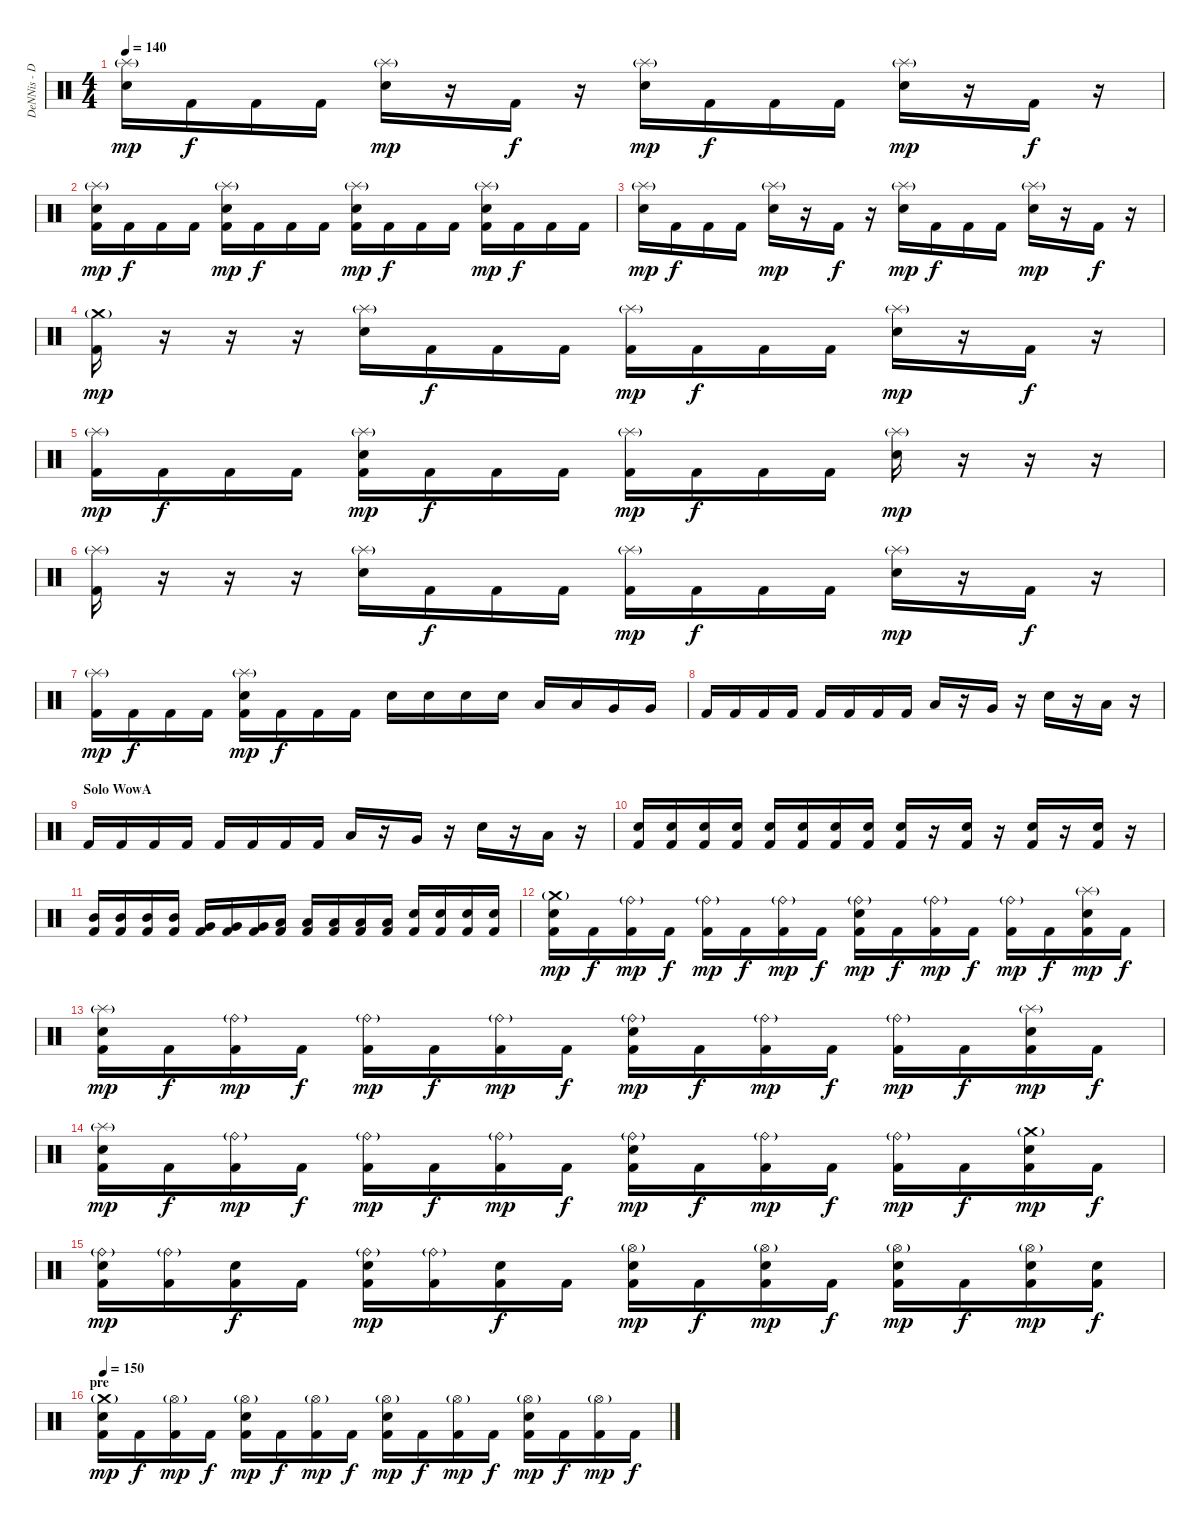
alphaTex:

\track ("DeNNis - Drums" "DeNNis - D") {instrument percussion}
\staff {score}
\articulation defaults
\ts (4 4)
\tempo 140
\clef neutral
\ks c
("Splash (hit)"{g} "Electric Snare (hit)").16{dy mp} "Kick (hit) 2".16{dy f} "Kick (hit) 2".16 "Kick (hit) 2".16 ("Splash (hit)"{g} "Electric Snare (hit)").16{dy mp} r.16 "Kick (hit) 2".16{dy f} r.16 ("Splash (hit)"{g} "Electric Snare (hit)").16{dy mp} "Kick (hit) 2".16{dy f} "Kick (hit) 2".16 "Kick (hit) 2".16 ("Splash (hit)"{g} "Electric Snare (hit)").16{dy mp} r.16 "Kick (hit) 2".16{dy f} r.16 |
("Splash (hit)"{g} "Electric Snare (hit)" "Kick (hit) 2").16{dy mp} "Kick (hit) 2".16{dy f} "Kick (hit) 2".16 "Kick (hit) 2".16 ("Splash (hit)"{g} "Electric Snare (hit)" "Kick (hit) 2").16{dy mp} "Kick (hit) 2".16{dy f} "Kick (hit) 2".16 "Kick (hit) 2".16 ("Splash (hit)"{g} "Electric Snare (hit)" "Kick (hit) 2").16{dy mp} "Kick (hit) 2".16{dy f} "Kick (hit) 2".16 "Kick (hit) 2".16 ("Splash (hit)"{g} "Electric Snare (hit)" "Kick (hit) 2").16{dy mp} "Kick (hit) 2".16{dy f} "Kick (hit) 2".16 "Kick (hit) 2".16 |
("Splash (hit)"{g} "Electric Snare (hit)").16{dy mp} "Kick (hit) 2".16{dy f} "Kick (hit) 2".16 "Kick (hit) 2".16 ("Splash (hit)"{g} "Electric Snare (hit)").16{dy mp} r.16 "Kick (hit) 2".16{dy f} r.16 ("Splash (hit)"{g} "Electric Snare (hit)").16{dy mp} "Kick (hit) 2".16{dy f} "Kick (hit) 2".16 "Kick (hit) 2".16 ("Splash (hit)"{g} "Electric Snare (hit)").16{dy mp} r.16 "Kick (hit) 2".16{dy f} r.16 |
("Crash medium (hit)"{g} "Kick (hit) 2").16{dy mp} r.16 r.16 r.16 ("Splash (hit)"{g} "Electric Snare (hit)").16 "Kick (hit) 2".16{dy f} "Kick (hit) 2".16 "Kick (hit) 2".16 ("Splash (hit)"{g} "Kick (hit) 2").16{dy mp} "Kick (hit) 2".16{dy f} "Kick (hit) 2".16 "Kick (hit) 2".16 ("Splash (hit)"{g} "Electric Snare (hit)").16{dy mp} r.16 "Kick (hit) 2".16{dy f} r.16 |
("Splash (hit)"{g} "Kick (hit) 2").16{dy mp} "Kick (hit) 2".16{dy f} "Kick (hit) 2".16 "Kick (hit) 2".16 ("Splash (hit)"{g} "Electric Snare (hit)" "Kick (hit) 2").16{dy mp} "Kick (hit) 2".16{dy f} "Kick (hit) 2".16 "Kick (hit) 2".16 ("Splash (hit)"{g} "Kick (hit) 2").16{dy mp} "Kick (hit) 2".16{dy f} "Kick (hit) 2".16 "Kick (hit) 2".16 ("Splash (hit)"{g} "Electric Snare (hit)").16{dy mp} r.16 r.16 r.16 |
("Splash (hit)"{g} "Kick (hit) 2").16 r.16 r.16 r.16 ("Splash (hit)"{g} "Electric Snare (hit)").16 "Kick (hit) 2".16{dy f} "Kick (hit) 2".16 "Kick (hit) 2".16 ("Splash (hit)"{g} "Kick (hit) 2").16{dy mp} "Kick (hit) 2".16{dy f} "Kick (hit) 2".16 "Kick (hit) 2".16 ("Splash (hit)"{g} "Electric Snare (hit)").16{dy mp} r.16 "Kick (hit) 2".16{dy f} r.16 |
("Splash (hit)"{g} "Kick (hit) 2").16{dy mp} "Kick (hit) 2".16{dy f} "Kick (hit) 2".16 "Kick (hit) 2".16 ("Splash (hit)"{g} "Electric Snare (hit)" "Kick (hit) 2").16{dy mp} "Kick (hit) 2".16{dy f} "Kick (hit) 2".16 "Kick (hit) 2".16 "Electric Snare (hit)".16 "Electric Snare (hit)".16 "Electric Snare (hit)".16 "Electric Snare (hit)".16 "Low Tom (hit)".16 "Low Tom (hit)".16 "Very Low Tom (hit)".16 "Very Low Tom (hit)".16 |
"Kick (hit) 2".16 "Kick (hit) 2".16 "Kick (hit) 2".16 "Kick (hit) 2".16 "Kick (hit) 2".16 "Kick (hit) 2".16 "Kick (hit) 2".16 "Kick (hit) 2".16 "Low Tom (hit)".16{volume 15 balance 0} r.16 "Very Low Tom (hit)".16{volume 15 balance 8} r.16 "Electric Snare (hit)".16{volume 14} r.16 "Low Floor Tom (hit)".16{volume 15 balance 16} r.16 |
\section ("" "Solo WowA")
"Kick (hit) 2".16 "Kick (hit) 2".16 "Kick (hit) 2".16 "Kick (hit) 2".16 "Kick (hit) 2".16 "Kick (hit) 2".16 "Kick (hit) 2".16 "Kick (hit) 2".16 "Low Tom (hit)".16{volume 15 balance 0} r.16 "Very Low Tom (hit)".16{volume 15 balance 8} r.16 "Electric Snare (hit)".16{volume 14} r.16 "Low Floor Tom (hit)".16{volume 15 balance 16} r.16 |
("Electric Snare (hit)" "Kick (hit) 2").16{volume 4 balance 8} ("Electric Snare (hit)" "Kick (hit) 2").16 ("Electric Snare (hit)" "Kick (hit) 2").16{volume 6} ("Electric Snare (hit)" "Kick (hit) 2").16 ("Electric Snare (hit)" "Kick (hit) 2").16{volume 8} ("Electric Snare (hit)" "Kick (hit) 2").16 ("Electric Snare (hit)" "Kick (hit) 2").16{volume 10} ("Electric Snare (hit)" "Kick (hit) 2").16 ("Electric Snare (hit)" "Kick (hit) 2").16{volume 12} r.16{volume 13} ("Electric Snare (hit)" "Kick (hit) 2").16 r.16 ("Electric Snare (hit)" "Kick (hit) 2").16 r.16 ("Electric Snare (hit)" "Kick (hit) 2").16 r.16 |
("Mid Tom (hit)" "Kick (hit) 2").16{balance 4} ("Mid Tom (hit)" "Kick (hit) 2").16 ("Mid Tom (hit)" "Kick (hit) 2").16 ("Mid Tom (hit)" "Kick (hit) 2").16 ("Very Low Tom (hit)" "Kick (hit) 2").16{balance 6} ("Very Low Tom (hit)" "Kick (hit) 2").16 ("Very Low Tom (hit)" "Kick (hit) 2").16 ("Low Floor Tom (hit)" "Kick (hit) 2").16{balance 10} ("Low Floor Tom (hit)" "Kick (hit) 2").16 ("Low Tom (hit)" "Kick (hit) 2").16{balance 12} ("Low Tom (hit)" "Kick (hit) 2").16 ("Low Tom (hit)" "Kick (hit) 2").16 ("Electric Snare (hit)" "Kick (hit) 2").16{balance 8} ("Electric Snare (hit)" "Kick (hit) 2").16 ("Electric Snare (hit)" "Kick (hit) 2").16 ("Electric Snare (hit)" "Kick (hit) 2").16 |
("Crash medium (hit)"{g} "Electric Snare (hit)" "Kick (hit) 2").16{dy mp} "Kick (hit) 2".16{dy f} ("Ride (bell)"{g} "Kick (hit) 2").16{dy mp} "Kick (hit) 2".16{dy f} ("Ride (bell)"{g} "Kick (hit) 2").16{dy mp} "Kick (hit) 2".16{dy f} ("Ride (bell)"{g} "Kick (hit) 2").16{dy mp} "Kick (hit) 2".16{dy f} ("Ride (bell)"{g} "Electric Snare (hit)" "Kick (hit) 2").16{dy mp} "Kick (hit) 2".16{dy f} ("Ride (bell)"{g} "Kick (hit) 2").16{dy mp} "Kick (hit) 2".16{dy f} ("Ride (bell)"{g} "Kick (hit) 2").16{dy mp} "Kick (hit) 2".16{dy f} ("Splash (hit)"{g} "Electric Snare (hit)" "Kick (hit) 2").16{dy mp} "Kick (hit) 2".16{dy f} |
("Splash (hit)"{g} "Electric Snare (hit)" "Kick (hit) 2").16{dy mp} "Kick (hit) 2".16{dy f} ("Ride (bell)"{g} "Kick (hit) 2").16{dy mp} "Kick (hit) 2".16{dy f} ("Ride (bell)"{g} "Kick (hit) 2").16{dy mp} "Kick (hit) 2".16{dy f} ("Ride (bell)"{g} "Kick (hit) 2").16{dy mp} "Kick (hit) 2".16{dy f} ("Ride (bell)"{g} "Electric Snare (hit)" "Kick (hit) 2").16{dy mp} "Kick (hit) 2".16{dy f} ("Ride (bell)"{g} "Kick (hit) 2").16{dy mp} "Kick (hit) 2".16{dy f} ("Ride (bell)"{g} "Kick (hit) 2").16{dy mp} "Kick (hit) 2".16{dy f} ("Splash (hit)"{g} "Electric Snare (hit)" "Kick (hit) 2").16{dy mp} "Kick (hit) 2".16{dy f} |
("Splash (hit)"{g} "Electric Snare (hit)" "Kick (hit) 2").16{dy mp} "Kick (hit) 2".16{dy f} ("Ride (bell)"{g} "Kick (hit) 2").16{dy mp} "Kick (hit) 2".16{dy f} ("Ride (bell)"{g} "Kick (hit) 2").16{dy mp} "Kick (hit) 2".16{dy f} ("Ride (bell)"{g} "Kick (hit) 2").16{dy mp} "Kick (hit) 2".16{dy f} ("Ride (bell)"{g} "Electric Snare (hit)" "Kick (hit) 2").16{dy mp} "Kick (hit) 2".16{dy f} ("Ride (bell)"{g} "Kick (hit) 2").16{dy mp} "Kick (hit) 2".16{dy f} ("Ride (bell)"{g} "Kick (hit) 2").16{dy mp} "Kick (hit) 2".16{dy f} ("Crash medium (hit)"{g} "Electric Snare (hit)" "Kick (hit) 2").16{dy mp} "Kick (hit) 2".16{dy f} |
("Ride (bell)"{g} "Electric Snare (hit)" "Kick (hit) 2").16{dy mp} ("Ride (bell)"{g} "Kick (hit) 2").16 ("Electric Snare (hit)" "Kick (hit) 2").16{dy f} "Kick (hit) 2".16 ("Ride (bell)"{g} "Electric Snare (hit)" "Kick (hit) 2").16{dy mp} ("Ride (bell)"{g} "Kick (hit) 2").16 ("Electric Snare (hit)" "Kick (hit) 2").16{dy f} "Kick (hit) 2".16 ("Hi-Hat (open)"{g} "Electric Snare (hit)" "Kick (hit) 2").16{dy mp} "Kick (hit) 2".16{dy f} ("Hi-Hat (open)"{g} "Electric Snare (hit)" "Kick (hit) 2").16{dy mp} "Kick (hit) 2".16{dy f} ("Hi-Hat (open)"{g} "Electric Snare (hit)" "Kick (hit) 2").16{dy mp} "Kick (hit) 2".16{dy f} ("Hi-Hat (open)"{g} "Electric Snare (hit)" "Kick (hit) 2").16{dy mp} ("Electric Snare (hit)" "Kick (hit) 2").16{dy f} |
\section ("" "pre")
\tempo 150
("Crash medium (hit)"{g} "Electric Snare (hit)" "Kick (hit) 2").16{dy mp} "Kick (hit) 2".16{dy f} ("Hi-Hat (open)"{g} "Kick (hit) 2").16{dy mp} "Kick (hit) 2".16{dy f} ("Hi-Hat (open)"{g} "Electric Snare (hit)" "Kick (hit) 2").16{dy mp} "Kick (hit) 2".16{dy f} ("Hi-Hat (open)"{g} "Kick (hit) 2").16{dy mp} "Kick (hit) 2".16{dy f} ("Hi-Hat (open)"{g} "Electric Snare (hit)" "Kick (hit) 2").16{dy mp} "Kick (hit) 2".16{dy f} ("Hi-Hat (open)"{g} "Kick (hit) 2").16{dy mp} "Kick (hit) 2".16{dy f} ("Hi-Hat (open)"{g} "Electric Snare (hit)" "Kick (hit) 2").16{dy mp} "Kick (hit) 2".16{dy f} ("Hi-Hat (open)"{g} "Kick (hit) 2").16{dy mp} "Kick (hit) 2".16{dy f}
